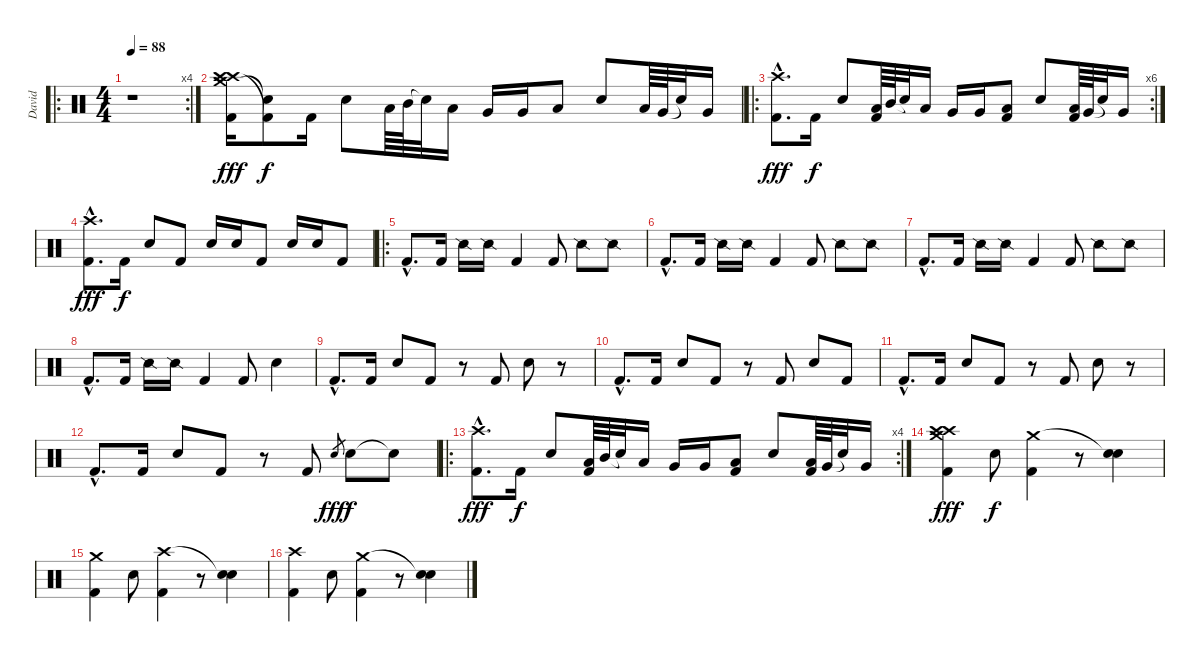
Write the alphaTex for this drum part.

\track ("David" "David") {instrument percussion}
\staff {score}
\articulation defaults
\ro
\rc 4
\ts (4 4)
\tempo 88
\clef neutral
\ks c
r.1{dy fff} |
("Crash medium (hit)" "Crash high (hit)" "Crash high (hit)" "Kick (hit) 2").16 ("Snare (hit)"{t} "Kick (hit) 2"{t}).8{dy f} "Kick (hit) 2".16 "Snare (hit) 2".8 "Low Tom (hit)".64 "Mid Tom (hit)".64 "Snare (hit)"{t}.32 "Low Tom (hit)".16 "Very Low Tom (hit)".16 "Very Low Tom (hit)".16 "Low Floor Tom (hit)".8 "Snare (hit) 2".8 "Low Floor Tom (hit)".64 "Very Low Tom (hit)".64 "Snare (hit)"{t}.32 "Very Low Tom (hit)".16 |
\ro
\rc 6
("Crash high (hit)"{hac} "Kick (hit) 2"{hac}).8{d dy fff} "Kick (hit) 2".16{dy f} "Snare (hit) 2".8 ("Kick (hit) 2" "Low Tom (hit)").64 "Mid Tom (hit)".64 "Snare (hit)"{t}.32 "Low Tom (hit)".16 "Very Low Tom (hit)".16 "Very Low Tom (hit)".16 ("Kick (hit) 2" "Low Floor Tom (hit)").8 "Snare (hit) 2".8 ("Kick (hit) 2" "Low Floor Tom (hit)").64 "Very Low Tom (hit)".64 "Snare (hit)"{t}.32 "Very Low Tom (hit)".16 |
("Crash high (hit)"{hac} "Kick (hit) 2"{hac}).8{d dy fff} "Kick (hit) 2".16{dy f} "Snare (hit) 2".8 "Kick (hit) 2".8 "Snare (hit) 2".16 "Snare (hit) 2".16 "Kick (hit) 2".8 "Snare (hit) 2".16 "Snare (hit) 2".16 "Kick (hit) 2".8 |
\ro "Kick (hit) 2"{hac}.8{d} "Kick (hit) 2".16 "Snare (side stick) 2".16 "Snare (side stick) 2".16 "Kick (hit) 2".4 "Kick (hit) 2".8 "Snare (side stick) 2".8 "Snare (side stick) 2".8
|
"Kick (hit) 2"{hac}.8{d} "Kick (hit) 2".16 "Snare (side stick) 2".16 "Snare (side stick) 2".16 "Kick (hit) 2".4 "Kick (hit) 2".8 "Snare (side stick) 2".8 "Snare (side stick) 2".8 |
"Kick (hit) 2"{hac}.8{d} "Kick (hit) 2".16 "Snare (side stick) 2".16 "Snare (side stick) 2".16 "Kick (hit) 2".4 "Kick (hit) 2".8 "Snare (side stick) 2".8 "Snare (side stick) 2".8 |
"Kick (hit) 2"{hac}.8{d} "Kick (hit) 2".16 "Snare (side stick) 2".16 "Snare (side stick) 2".16 "Kick (hit) 2".4 "Kick (hit) 2".8 "Snare (hit) 2".4 |
"Kick (hit) 2"{hac}.8{d} "Kick (hit) 2".16 "Snare (hit) 2".8 "Kick (hit) 2".8 r.8 "Kick (hit) 2".8 "Snare (hit) 2".8 r.8 |
"Kick (hit) 2"{hac}.8{d} "Kick (hit) 2".16 "Snare (hit) 2".8 "Kick (hit) 2".8 r.8 "Kick (hit) 2".8 "Snare (hit) 2".8 "Kick (hit) 2".8 |
"Kick (hit) 2"{hac}.8{d} "Kick (hit) 2".16 "Snare (hit) 2".8 "Kick (hit) 2".8 r.8 "Kick (hit) 2".8 "Snare (hit) 2".8 r.8 |
"Kick (hit) 2"{hac}.8{d} "Kick (hit) 2".16 "Snare (hit) 2".8 "Kick (hit) 2".8 r.8 "Kick (hit) 2".8 "Snare (hit) 2".8{gr dy fff} "Snare (hit) 2".8{dy f} "Snare (hit) 2"{t}.8 |
\ro
\rc 4
("Crash high (hit)"{hac} "Kick (hit) 2"{hac}).8{d dy fff} "Kick (hit) 2".16{dy f} "Snare (hit) 2".8 ("Kick (hit) 2" "Low Tom (hit)").64 "Mid Tom (hit)".64 "Snare (hit)"{t}.32 "Low Tom (hit)".16 "Very Low Tom (hit)".16 "Very Low Tom (hit)".16 ("Kick (hit) 2" "Low Floor Tom (hit)").8 "Snare (hit) 2".8 ("Kick (hit) 2" "Low Floor Tom (hit)").64 "Very Low Tom (hit)".64 "Snare (hit)"{t}.32 "Very Low Tom (hit)".16 |
("Kick (hit) 2" "Crash high (hit)" "Crash medium (hit)" "Crash high (hit)").4{dy fff} "Snare (hit) 2".8{dy f} ("Crash medium (hit)" "Kick (hit) 2").4 r.8 ("Snare (hit)"{t} "Snare (hit) 2").4 |
("Kick (hit) 2" "Crash medium (hit)").4 "Snare (hit) 2".8 ("Crash high (hit)" "Kick (hit) 2").4 r.8 ("Snare (hit)"{t} "Snare (hit) 2").4 |
("Kick (hit) 2" "Crash high (hit)").4 "Snare (hit) 2".8 ("Crash medium (hit)" "Kick (hit) 2").4 r.8 ("Snare (hit)"{t} "Snare (hit) 2").4
